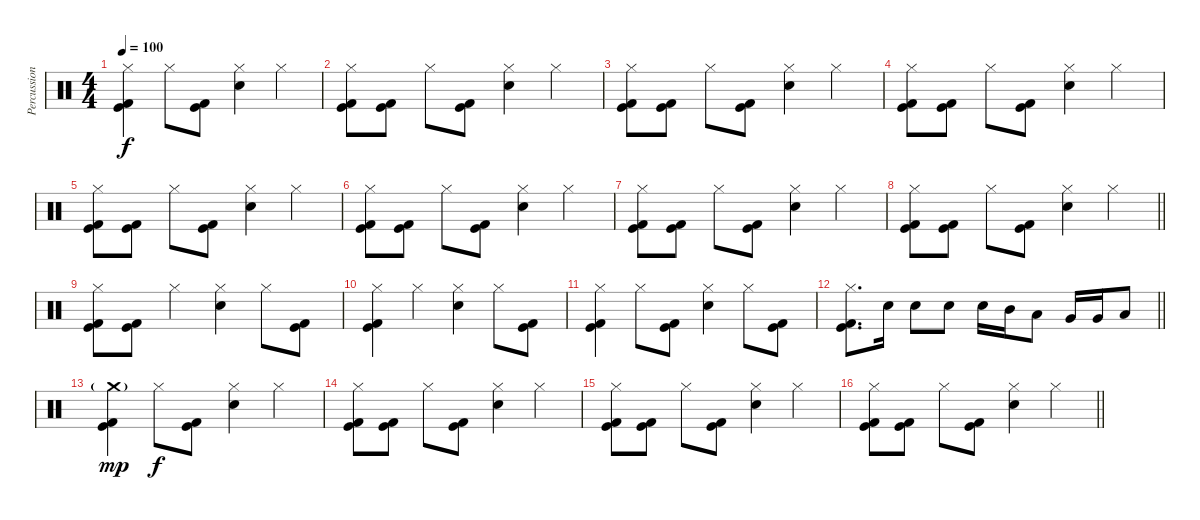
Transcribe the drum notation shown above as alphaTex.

\track ("Percussion" "Percussion") {instrument percussion}
\staff {score}
\articulation defaults
\ts (4 4)
\section ("" "")
\tempo 100
\clef neutral
\ks c
("Hi-Hat (closed)" "Kick (hit)" "Kick (hit) 2").4{dy f} "Hi-Hat (closed)".8 ("Kick (hit)" "Kick (hit) 2").8 ("Hi-Hat (closed)" "Electric Snare (hit)").4 "Hi-Hat (closed)".4 |
("Hi-Hat (closed)" "Kick (hit)" "Kick (hit) 2").8 ("Kick (hit)" "Kick (hit) 2").8 "Hi-Hat (closed)".8 ("Kick (hit)" "Kick (hit) 2").8 ("Hi-Hat (closed)" "Electric Snare (hit)").4 "Hi-Hat (closed)".4 |
("Hi-Hat (closed)" "Kick (hit)" "Kick (hit) 2").8 ("Kick (hit)" "Kick (hit) 2").8 "Hi-Hat (closed)".8 ("Kick (hit)" "Kick (hit) 2").8 ("Hi-Hat (closed)" "Electric Snare (hit)").4 "Hi-Hat (closed)".4 |
("Hi-Hat (closed)" "Kick (hit)" "Kick (hit) 2").8 ("Kick (hit)" "Kick (hit) 2").8 "Hi-Hat (closed)".8 ("Kick (hit)" "Kick (hit) 2").8 ("Hi-Hat (closed)" "Electric Snare (hit)").4 "Hi-Hat (closed)".4 |
("Hi-Hat (closed)" "Kick (hit)" "Kick (hit) 2").8 ("Kick (hit)" "Kick (hit) 2").8 "Hi-Hat (closed)".8 ("Kick (hit)" "Kick (hit) 2").8 ("Hi-Hat (closed)" "Electric Snare (hit)").4 "Hi-Hat (closed)".4 |
("Hi-Hat (closed)" "Kick (hit)" "Kick (hit) 2").8 ("Kick (hit)" "Kick (hit) 2").8 "Hi-Hat (closed)".8 ("Kick (hit)" "Kick (hit) 2").8 ("Hi-Hat (closed)" "Electric Snare (hit)").4 "Hi-Hat (closed)".4 |
("Hi-Hat (closed)" "Kick (hit)" "Kick (hit) 2").8 ("Kick (hit)" "Kick (hit) 2").8 "Hi-Hat (closed)".8 ("Kick (hit)" "Kick (hit) 2").8 ("Hi-Hat (closed)" "Electric Snare (hit)").4 "Hi-Hat (closed)".4 |
\barLineRight lightlight
("Hi-Hat (closed)" "Kick (hit)" "Kick (hit) 2").8 ("Kick (hit)" "Kick (hit) 2").8 "Hi-Hat (closed)".8 ("Kick (hit)" "Kick (hit) 2").8 ("Hi-Hat (closed)" "Electric Snare (hit)").4 "Hi-Hat (closed)".4 |
\section ("" "")
("Hi-Hat (closed)" "Kick (hit)" "Kick (hit) 2").8 ("Kick (hit)" "Kick (hit) 2").8 "Hi-Hat (closed)".4 ("Hi-Hat (closed)" "Electric Snare (hit)").4 "Hi-Hat (closed)".8 ("Kick (hit)" "Kick (hit) 2").8 |
("Hi-Hat (closed)" "Kick (hit)" "Kick (hit) 2").4 "Hi-Hat (closed)".4 ("Hi-Hat (closed)" "Electric Snare (hit)").4 "Hi-Hat (closed)".8 ("Kick (hit)" "Kick (hit) 2").8 |
("Hi-Hat (closed)" "Kick (hit)" "Kick (hit) 2").4 "Hi-Hat (closed)".8 ("Kick (hit)" "Kick (hit) 2").8 ("Hi-Hat (closed)" "Electric Snare (hit)").4 "Hi-Hat (closed)".8 ("Kick (hit)" "Kick (hit) 2").8 |
\barLineRight lightlight
("Hi-Hat (closed)" "Kick (hit)" "Kick (hit) 2").8{d} "Electric Snare (hit)".16 "Electric Snare (hit)".8 "Electric Snare (hit)".8 "Electric Snare (hit)".16 "Mid Tom (hit)".16 "Low Tom (hit)".8 "Very Low Tom (hit)".16 "Very Low Tom (hit)".16 "Low Floor Tom (hit)".8 |
\section ("" "")
("Crash medium (hit)"{g} "Kick (hit)" "Kick (hit) 2").4{dy mp} "Hi-Hat (closed)".8{dy f} ("Kick (hit)" "Kick (hit) 2").8 ("Hi-Hat (closed)" "Electric Snare (hit)").4 "Hi-Hat (closed)".4 |
("Hi-Hat (closed)" "Kick (hit)" "Kick (hit) 2").8 ("Kick (hit)" "Kick (hit) 2").8 "Hi-Hat (closed)".8 ("Kick (hit)" "Kick (hit) 2").8 ("Hi-Hat (closed)" "Electric Snare (hit)").4 "Hi-Hat (closed)".4 |
("Hi-Hat (closed)" "Kick (hit)" "Kick (hit) 2").8 ("Kick (hit)" "Kick (hit) 2").8 "Hi-Hat (closed)".8 ("Kick (hit)" "Kick (hit) 2").8 ("Hi-Hat (closed)" "Electric Snare (hit)").4 "Hi-Hat (closed)".4 |
\barLineRight lightlight
("Hi-Hat (closed)" "Kick (hit)" "Kick (hit) 2").8 ("Kick (hit)" "Kick (hit) 2").8 "Hi-Hat (closed)".8 ("Kick (hit)" "Kick (hit) 2").8 ("Hi-Hat (closed)" "Electric Snare (hit)").4 "Hi-Hat (closed)".4
